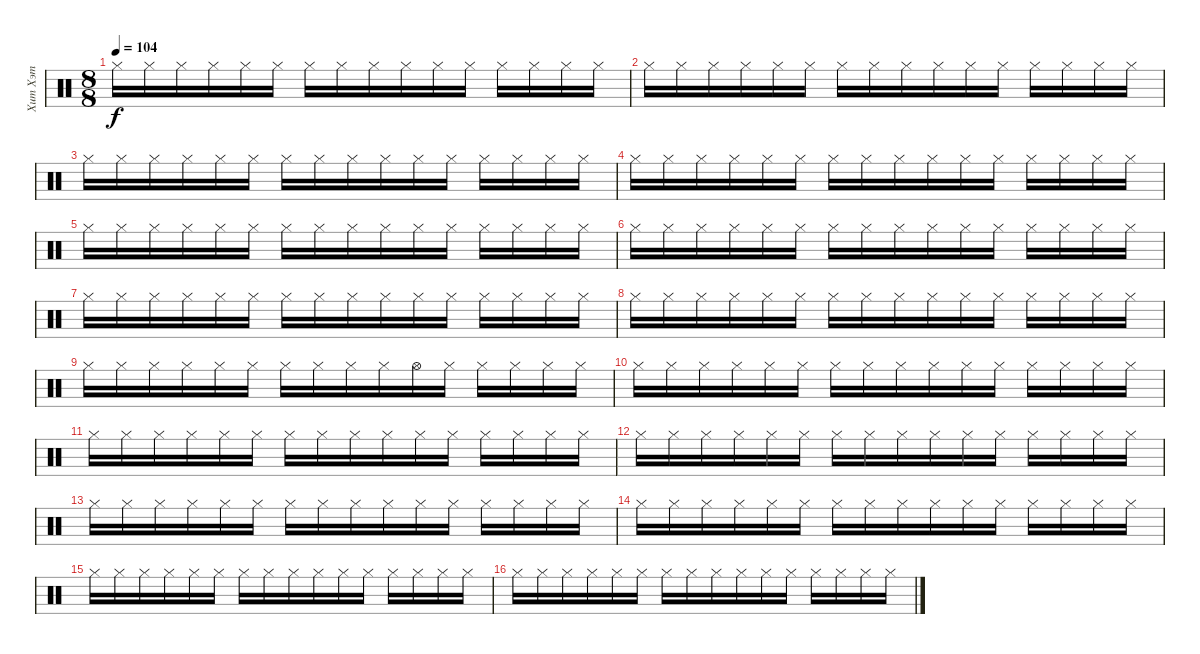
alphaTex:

\track ("Хит Хэт" "Хит Хэт") {instrument percussion}
\staff {score}
\articulation defaults
\ts (8 8)
\tempo 104
\clef neutral
\ks c "Hi-Hat (closed)".16{dy f} "Hi-Hat (closed)".16 "Hi-Hat (closed)".16 "Hi-Hat (closed)".16 "Hi-Hat (closed)".16 "Hi-Hat (closed)".16 "Hi-Hat (closed)".16 "Hi-Hat (closed)".16 "Hi-Hat (closed)".16 "Hi-Hat (closed)".16 "Hi-Hat (closed)".16 "Hi-Hat (closed)".16 "Hi-Hat (closed)".16 "Hi-Hat (closed)".16 "Hi-Hat (closed)".16 "Hi-Hat (closed)".16
|
"Hi-Hat (closed)".16 "Hi-Hat (closed)".16 "Hi-Hat (closed)".16 "Hi-Hat (closed)".16 "Hi-Hat (closed)".16 "Hi-Hat (closed)".16 "Hi-Hat (closed)".16 "Hi-Hat (closed)".16 "Hi-Hat (closed)".16 "Hi-Hat (closed)".16 "Hi-Hat (closed)".16 "Hi-Hat (closed)".16 "Hi-Hat (closed)".16 "Hi-Hat (closed)".16 "Hi-Hat (closed)".16 "Hi-Hat (closed)".16 |
"Hi-Hat (closed)".16 "Hi-Hat (closed)".16 "Hi-Hat (closed)".16 "Hi-Hat (closed)".16 "Hi-Hat (closed)".16 "Hi-Hat (closed)".16 "Hi-Hat (closed)".16 "Hi-Hat (closed)".16 "Hi-Hat (closed)".16 "Hi-Hat (closed)".16 "Hi-Hat (closed)".16 "Hi-Hat (closed)".16 "Hi-Hat (closed)".16 "Hi-Hat (closed)".16 "Hi-Hat (closed)".16 "Hi-Hat (closed)".16 |
"Hi-Hat (closed)".16 "Hi-Hat (closed)".16 "Hi-Hat (closed)".16 "Hi-Hat (closed)".16 "Hi-Hat (closed)".16 "Hi-Hat (closed)".16 "Hi-Hat (closed)".16 "Hi-Hat (closed)".16 "Hi-Hat (closed)".16 "Hi-Hat (closed)".16 "Hi-Hat (closed)".16 "Hi-Hat (closed)".16 "Hi-Hat (closed)".16 "Hi-Hat (closed)".16 "Hi-Hat (closed)".16 "Hi-Hat (closed)".16 |
"Hi-Hat (closed)".16 "Hi-Hat (closed)".16 "Hi-Hat (closed)".16 "Hi-Hat (closed)".16 "Hi-Hat (closed)".16 "Hi-Hat (closed)".16 "Hi-Hat (closed)".16 "Hi-Hat (closed)".16 "Hi-Hat (closed)".16 "Hi-Hat (closed)".16 "Hi-Hat (closed)".16 "Hi-Hat (closed)".16 "Hi-Hat (closed)".16 "Hi-Hat (closed)".16 "Hi-Hat (closed)".16 "Hi-Hat (closed)".16 |
"Hi-Hat (closed)".16 "Hi-Hat (closed)".16 "Hi-Hat (closed)".16 "Hi-Hat (closed)".16 "Hi-Hat (closed)".16 "Hi-Hat (closed)".16 "Hi-Hat (closed)".16 "Hi-Hat (closed)".16 "Hi-Hat (closed)".16 "Hi-Hat (closed)".16 "Hi-Hat (closed)".16 "Hi-Hat (closed)".16 "Hi-Hat (closed)".16 "Hi-Hat (closed)".16 "Hi-Hat (closed)".16 "Hi-Hat (closed)".16 |
"Hi-Hat (closed)".16 "Hi-Hat (closed)".16 "Hi-Hat (closed)".16 "Hi-Hat (closed)".16 "Hi-Hat (closed)".16 "Hi-Hat (closed)".16 "Hi-Hat (closed)".16 "Hi-Hat (closed)".16 "Hi-Hat (closed)".16 "Hi-Hat (closed)".16 "Hi-Hat (closed)".16 "Hi-Hat (closed)".16 "Hi-Hat (closed)".16 "Hi-Hat (closed)".16 "Hi-Hat (closed)".16 "Hi-Hat (closed)".16 |
"Hi-Hat (closed)".16 "Hi-Hat (closed)".16 "Hi-Hat (closed)".16 "Hi-Hat (closed)".16 "Hi-Hat (closed)".16 "Hi-Hat (closed)".16 "Hi-Hat (closed)".16 "Hi-Hat (closed)".16 "Hi-Hat (closed)".16 "Hi-Hat (closed)".16 "Hi-Hat (closed)".16 "Hi-Hat (closed)".16 "Hi-Hat (closed)".16 "Hi-Hat (closed)".16 "Hi-Hat (closed)".16 "Hi-Hat (closed)".16 |
"Hi-Hat (closed)".16 "Hi-Hat (closed)".16 "Hi-Hat (closed)".16 "Hi-Hat (closed)".16 "Hi-Hat (closed)".16 "Hi-Hat (closed)".16 "Hi-Hat (closed)".16 "Hi-Hat (closed)".16 "Hi-Hat (closed)".16 "Hi-Hat (closed)".16 "Hi-Hat (open)".16 "Hi-Hat (closed)".16 "Hi-Hat (closed)".16 "Hi-Hat (closed)".16 "Hi-Hat (closed)".16 "Hi-Hat (closed)".16 |
"Hi-Hat (closed)".16 "Hi-Hat (closed)".16 "Hi-Hat (closed)".16 "Hi-Hat (closed)".16 "Hi-Hat (closed)".16 "Hi-Hat (closed)".16 "Hi-Hat (closed)".16 "Hi-Hat (closed)".16 "Hi-Hat (closed)".16 "Hi-Hat (closed)".16 "Hi-Hat (closed)".16 "Hi-Hat (closed)".16 "Hi-Hat (closed)".16 "Hi-Hat (closed)".16 "Hi-Hat (closed)".16 "Hi-Hat (closed)".16 |
"Hi-Hat (closed)".16 "Hi-Hat (closed)".16 "Hi-Hat (closed)".16 "Hi-Hat (closed)".16 "Hi-Hat (closed)".16 "Hi-Hat (closed)".16 "Hi-Hat (closed)".16 "Hi-Hat (closed)".16 "Hi-Hat (closed)".16 "Hi-Hat (closed)".16 "Hi-Hat (closed)".16 "Hi-Hat (closed)".16 "Hi-Hat (closed)".16 "Hi-Hat (closed)".16 "Hi-Hat (closed)".16 "Hi-Hat (closed)".16 |
"Hi-Hat (closed)".16 "Hi-Hat (closed)".16 "Hi-Hat (closed)".16 "Hi-Hat (closed)".16 "Hi-Hat (closed)".16 "Hi-Hat (closed)".16 "Hi-Hat (closed)".16 "Hi-Hat (closed)".16 "Hi-Hat (closed)".16 "Hi-Hat (closed)".16 "Hi-Hat (closed)".16 "Hi-Hat (closed)".16 "Hi-Hat (closed)".16 "Hi-Hat (closed)".16 "Hi-Hat (closed)".16 "Hi-Hat (closed)".16 |
"Hi-Hat (closed)".16 "Hi-Hat (closed)".16 "Hi-Hat (closed)".16 "Hi-Hat (closed)".16 "Hi-Hat (closed)".16 "Hi-Hat (closed)".16 "Hi-Hat (closed)".16 "Hi-Hat (closed)".16 "Hi-Hat (closed)".16 "Hi-Hat (closed)".16 "Hi-Hat (closed)".16 "Hi-Hat (closed)".16 "Hi-Hat (closed)".16 "Hi-Hat (closed)".16 "Hi-Hat (closed)".16 "Hi-Hat (closed)".16 |
"Hi-Hat (closed)".16 "Hi-Hat (closed)".16 "Hi-Hat (closed)".16 "Hi-Hat (closed)".16 "Hi-Hat (closed)".16 "Hi-Hat (closed)".16 "Hi-Hat (closed)".16 "Hi-Hat (closed)".16 "Hi-Hat (closed)".16 "Hi-Hat (closed)".16 "Hi-Hat (closed)".16 "Hi-Hat (closed)".16 "Hi-Hat (closed)".16 "Hi-Hat (closed)".16 "Hi-Hat (closed)".16 "Hi-Hat (closed)".16 |
"Hi-Hat (closed)".16 "Hi-Hat (closed)".16 "Hi-Hat (closed)".16 "Hi-Hat (closed)".16 "Hi-Hat (closed)".16 "Hi-Hat (closed)".16 "Hi-Hat (closed)".16 "Hi-Hat (closed)".16 "Hi-Hat (closed)".16 "Hi-Hat (closed)".16 "Hi-Hat (closed)".16 "Hi-Hat (closed)".16 "Hi-Hat (closed)".16 "Hi-Hat (closed)".16 "Hi-Hat (closed)".16 "Hi-Hat (closed)".16 |
"Hi-Hat (closed)".16 "Hi-Hat (closed)".16 "Hi-Hat (closed)".16 "Hi-Hat (closed)".16 "Hi-Hat (closed)".16 "Hi-Hat (closed)".16 "Hi-Hat (closed)".16 "Hi-Hat (closed)".16 "Hi-Hat (closed)".16 "Hi-Hat (closed)".16 "Hi-Hat (closed)".16 "Hi-Hat (closed)".16 "Hi-Hat (closed)".16 "Hi-Hat (closed)".16 "Hi-Hat (closed)".16 "Hi-Hat (closed)".16
